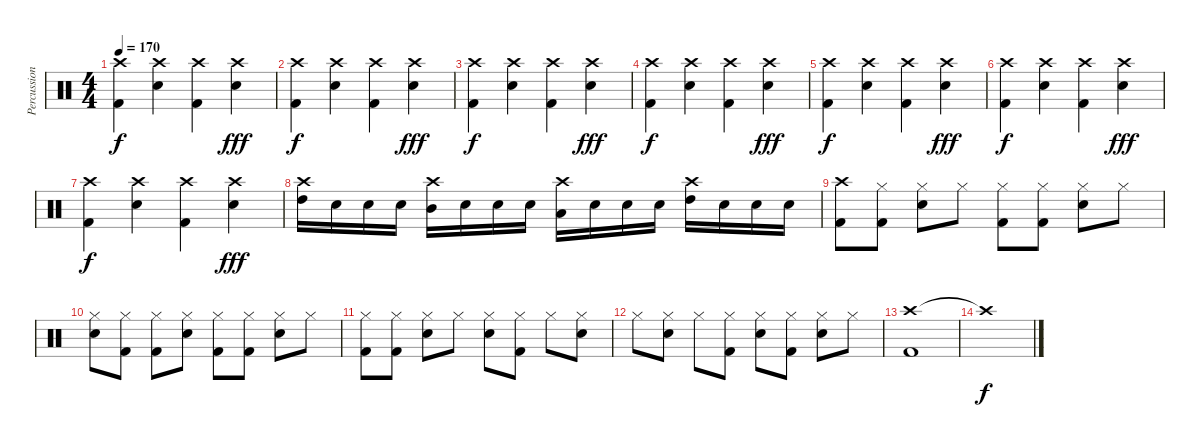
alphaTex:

\track ("Percussion" "Percussion") {instrument percussion}
\staff {score}
\articulation defaults
\ts (4 4)
\tempo 170
\clef neutral
\ks c
("Crash high (hit)" "Kick (hit) 2").4{dy f} ("Crash high (hit)" "Electric Snare (hit)").4 ("Crash high (hit)" "Kick (hit) 2").4 ("Crash high (hit)" "Electric Snare (hit)").4{dy fff} |
("Crash high (hit)" "Kick (hit) 2").4{dy f} ("Crash high (hit)" "Electric Snare (hit)").4 ("Crash high (hit)" "Kick (hit) 2").4 ("Crash high (hit)" "Electric Snare (hit)").4{dy fff} |
("Crash high (hit)" "Kick (hit) 2").4{dy f} ("Crash high (hit)" "Electric Snare (hit)").4 ("Crash high (hit)" "Kick (hit) 2").4 ("Crash high (hit)" "Electric Snare (hit)").4{dy fff} |
("Crash high (hit)" "Kick (hit) 2").4{dy f} ("Crash high (hit)" "Electric Snare (hit)").4 ("Crash high (hit)" "Kick (hit) 2").4 ("Crash high (hit)" "Electric Snare (hit)").4{dy fff} |
("Crash high (hit)" "Kick (hit) 2").4{dy f} ("Crash high (hit)" "Electric Snare (hit)").4 ("Crash high (hit)" "Kick (hit) 2").4 ("Crash high (hit)" "Electric Snare (hit)").4{dy fff} |
("Crash high (hit)" "Kick (hit) 2").4{dy f} ("Crash high (hit)" "Electric Snare (hit)").4 ("Crash high (hit)" "Kick (hit) 2").4 ("Crash high (hit)" "Electric Snare (hit)").4{dy fff} |
("Crash high (hit)" "Kick (hit) 2").4{dy f} ("Crash high (hit)" "Electric Snare (hit)").4 ("Crash high (hit)" "Kick (hit) 2").4 ("Crash high (hit)" "Electric Snare (hit)").4{dy fff} |
("Crash high (hit)" "High Tom (hit)").16 "Electric Snare (hit)".16 "Electric Snare (hit)".16 "Electric Snare (hit)".16 ("Crash high (hit)" "Mid Tom (hit)").16 "Electric Snare (hit)".16 "Electric Snare (hit)".16 "Electric Snare (hit)".16 ("Crash high (hit)" "Low Tom (hit)").16 "Electric Snare (hit)".16 "Electric Snare (hit)".16 "Electric Snare (hit)".16 ("Crash high (hit)" "High Tom (hit)").16 "Electric Snare (hit)".16 "Electric Snare (hit)".16 "Electric Snare (hit)".16 |
("Crash high (hit)" "Kick (hit) 2").8 ("Hi-Hat (closed)" "Kick (hit) 2").8 ("Hi-Hat (closed)" "Electric Snare (hit)").8 "Hi-Hat (closed)".8 ("Hi-Hat (closed)" "Kick (hit) 2").8 ("Hi-Hat (closed)" "Kick (hit) 2").8 ("Hi-Hat (closed)" "Electric Snare (hit)").8 "Hi-Hat (closed)".8 |
("Hi-Hat (closed)" "Electric Snare (hit)").8 ("Hi-Hat (closed)" "Kick (hit) 2").8 ("Hi-Hat (closed)" "Kick (hit) 2").8 ("Hi-Hat (closed)" "Electric Snare (hit)").8 ("Hi-Hat (closed)" "Kick (hit) 2").8 ("Hi-Hat (closed)" "Kick (hit) 2").8 ("Hi-Hat (closed)" "Electric Snare (hit)").8 "Hi-Hat (closed)".8 |
("Hi-Hat (closed)" "Kick (hit) 2").8 ("Hi-Hat (closed)" "Kick (hit) 2").8 ("Hi-Hat (closed)" "Electric Snare (hit)").8 "Hi-Hat (closed)".8 ("Hi-Hat (closed)" "Electric Snare (hit)").8 ("Hi-Hat (closed)" "Kick (hit) 2").8 "Hi-Hat (closed)".8 ("Hi-Hat (closed)" "Electric Snare (hit)").8 |
"Hi-Hat (closed)".8 ("Hi-Hat (closed)" "Electric Snare (hit)").8 "Hi-Hat (closed)".8 ("Hi-Hat (closed)" "Kick (hit) 2").8 ("Hi-Hat (closed)" "Electric Snare (hit)").8 ("Hi-Hat (closed)" "Kick (hit) 2").8 ("Hi-Hat (closed)" "Electric Snare (hit)").8 "Hi-Hat (closed)".8 |
("Crash high (hit)" "Kick (hit) 2").1 |
"Crash high (hit)"{t}.1{dy f}
